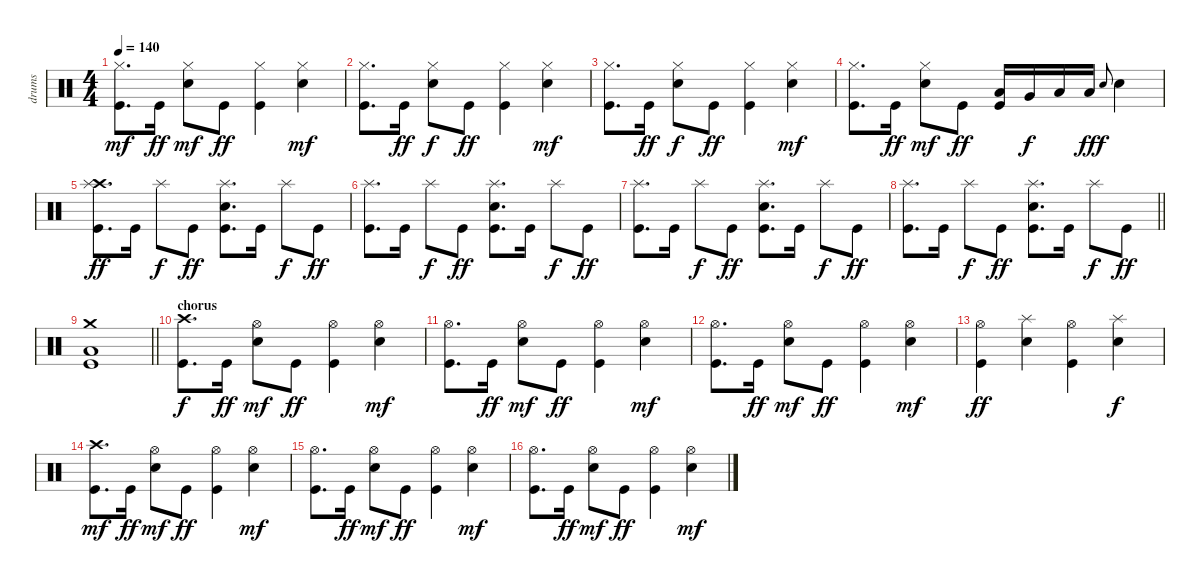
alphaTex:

\track ("drums" "drums") {instrument percussion}
\staff {score}
\articulation defaults
\ts (4 4)
\tempo 140
\clef neutral
\ks c
("Hi-Hat (closed)" "Kick (hit)").8{d dy mf} "Kick (hit)".16{dy ff} ("Hi-Hat (closed)" "Electric Snare (hit)").8{dy mf} "Kick (hit)".8{dy ff} ("Hi-Hat (closed)" "Kick (hit)").4 ("Hi-Hat (closed)" "Electric Snare (hit)").4{dy mf} |
("Hi-Hat (closed)" "Kick (hit)").8{d} "Kick (hit)".16{dy ff} ("Hi-Hat (closed)" "Electric Snare (hit)").8{dy f} "Kick (hit)".8{dy ff} ("Hi-Hat (closed)" "Kick (hit)").4 ("Hi-Hat (closed)" "Electric Snare (hit)").4{dy mf} |
("Hi-Hat (closed)" "Kick (hit)").8{d} "Kick (hit)".16{dy ff} ("Hi-Hat (closed)" "Electric Snare (hit)").8{dy f} "Kick (hit)".8{dy ff} ("Hi-Hat (closed)" "Kick (hit)").4 ("Hi-Hat (closed)" "Electric Snare (hit)").4{dy mf} |
("Hi-Hat (closed)" "Kick (hit)").8{d} "Kick (hit)".16{dy ff} ("Hi-Hat (closed)" "Electric Snare (hit)").8{dy mf} "Kick (hit)".8{dy ff} ("Low Tom (hit)" "Kick (hit)").16 "Very Low Tom (hit)".16{dy f} "Low Floor Tom (hit)".16 "Low Floor Tom (hit)".16{dy ff} "Electric Snare (hit)".8{gr onbeat dy f} "Electric Snare (hit)".4 |
("Crash high (hit)" "Splash (hit)" "Kick (hit)").8{d dy ff} "Kick (hit)".16 "Splash (hit)".8{dy f} "Kick (hit)".8{dy ff} ("Splash (hit)" "Electric Snare (hit)" "Kick (hit)").8{d} "Kick (hit)".16 "Splash (hit)".8{dy f} "Kick (hit)".8{dy ff} |
("Splash (hit)" "Kick (hit)").8{d} "Kick (hit)".16 "Splash (hit)".8{dy f} "Kick (hit)".8{dy ff} ("Splash (hit)" "Electric Snare (hit)" "Kick (hit)").8{d} "Kick (hit)".16 "Splash (hit)".8{dy f} "Kick (hit)".8{dy ff} |
("Splash (hit)" "Kick (hit)").8{d} "Kick (hit)".16 "Splash (hit)".8{dy f} "Kick (hit)".8{dy ff} ("Splash (hit)" "Electric Snare (hit)" "Kick (hit)").8{d} "Kick (hit)".16 "Splash (hit)".8{dy f} "Kick (hit)".8{dy ff} |
\barLineRight lightlight
("Splash (hit)" "Kick (hit)").8{d} "Kick (hit)".16 "Splash (hit)".8{dy f} "Kick (hit)".8{dy ff} ("Splash (hit)" "Electric Snare (hit)" "Kick (hit)").8{d} "Kick (hit)".16 "Splash (hit)".8{dy f} "Kick (hit)".8{dy ff} |
\barLineRight lightlight
("Crash medium (hit)" "Low Floor Tom (hit)" "Kick (hit)").1 |
\section ("" "chorus")
("Crash high (hit)" "Kick (hit)").8{d dy f} "Kick (hit)".16{dy ff} ("Hi-Hat (open)" "Electric Snare (hit)").8{dy mf} "Kick (hit)".8{dy ff} ("Hi-Hat (open)" "Kick (hit)").4 ("Hi-Hat (open)" "Electric Snare (hit)").4{dy mf} |
("Hi-Hat (open)" "Kick (hit)").8{d} "Kick (hit)".16{dy ff} ("Hi-Hat (open)" "Electric Snare (hit)").8{dy mf} "Kick (hit)".8{dy ff} ("Hi-Hat (open)" "Kick (hit)").4 ("Hi-Hat (open)" "Electric Snare (hit)").4{dy mf} |
("Hi-Hat (open)" "Kick (hit)").8{d} "Kick (hit)".16{dy ff} ("Hi-Hat (open)" "Electric Snare (hit)").8{dy mf} "Kick (hit)".8{dy ff} ("Hi-Hat (open)" "Kick (hit)").4 ("Hi-Hat (open)" "Electric Snare (hit)").4{dy mf} |
("Hi-Hat (open)" "Kick (hit)").4{dy ff} ("Splash (hit)" "Electric Snare (hit)").4 ("Hi-Hat (open)" "Kick (hit)").4 ("Splash (hit)" "Electric Snare (hit)").4{dy f} |
("Crash high (hit)" "Kick (hit)").8{d dy mf} "Kick (hit)".16{dy ff} ("Hi-Hat (open)" "Electric Snare (hit)").8{dy mf} "Kick (hit)".8{dy ff} ("Hi-Hat (open)" "Kick (hit)").4 ("Hi-Hat (open)" "Electric Snare (hit)").4{dy mf} |
("Hi-Hat (open)" "Kick (hit)").8{d} "Kick (hit)".16{dy ff} ("Hi-Hat (open)" "Electric Snare (hit)").8{dy mf} "Kick (hit)".8{dy ff} ("Hi-Hat (open)" "Kick (hit)").4 ("Hi-Hat (open)" "Electric Snare (hit)").4{dy mf} |
("Hi-Hat (open)" "Kick (hit)").8{d} "Kick (hit)".16{dy ff} ("Hi-Hat (open)" "Electric Snare (hit)").8{dy mf} "Kick (hit)".8{dy ff} ("Hi-Hat (open)" "Kick (hit)").4 ("Hi-Hat (open)" "Electric Snare (hit)").4{dy mf}
